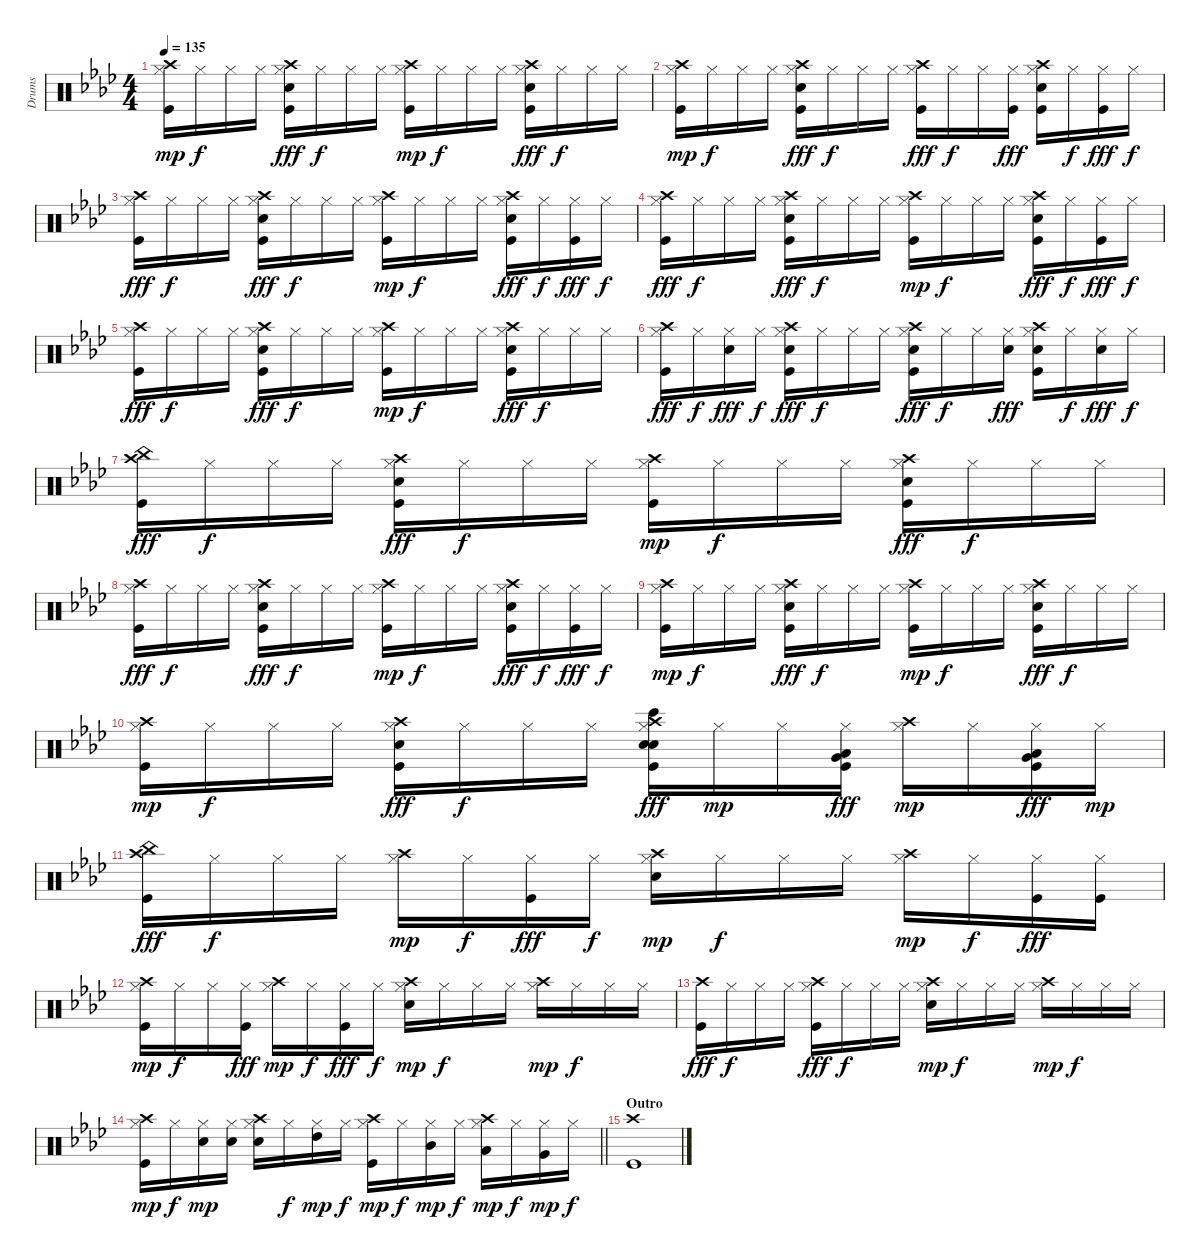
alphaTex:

\track ("Drums" "Drums") {instrument percussion}
\staff {score}
\articulation defaults
\ts (4 4)
\tempo 135
\clef neutral
\ks ab
("Crash high (hit)" "Kick (hit)" "Hi-Hat (closed)").16{dy mp} "Hi-Hat (closed)".16{dy f} "Hi-Hat (closed)".16 "Hi-Hat (closed)".16 ("Hi-Hat (closed)" "Crash high (hit)" "Snare (hit) 2" "Kick (hit)").16{dy fff} "Hi-Hat (closed)".16{dy f} "Hi-Hat (closed)".16 "Hi-Hat (closed)".16 ("Hi-Hat (closed)" "Kick (hit)" "Crash high (hit)").16{dy mp} "Hi-Hat (closed)".16{dy f} "Hi-Hat (closed)".16 "Hi-Hat (closed)".16 ("Hi-Hat (closed)" "Crash high (hit)" "Kick (hit)" "Snare (hit) 2").16{dy fff} "Hi-Hat (closed)".16{dy f} "Hi-Hat (closed)".16 "Hi-Hat (closed)".16 |
("Crash high (hit)" "Kick (hit)" "Hi-Hat (closed)").16{dy mp} "Hi-Hat (closed)".16{dy f} "Hi-Hat (closed)".16 "Hi-Hat (closed)".16 ("Hi-Hat (closed)" "Crash high (hit)" "Kick (hit)" "Snare (hit) 2").16{dy fff} "Hi-Hat (closed)".16{dy f} "Hi-Hat (closed)".16 "Hi-Hat (closed)".16 ("Hi-Hat (closed)" "Kick (hit)" "Crash high (hit)").16{dy fff} "Hi-Hat (closed)".16{dy f} "Hi-Hat (closed)".16 ("Hi-Hat (closed)" "Kick (hit)").16{dy fff} ("Kick (hit)" "Hi-Hat (closed)" "Crash high (hit)" "Snare (hit) 2").16 "Hi-Hat (closed)".16{dy f} ("Hi-Hat (closed)" "Kick (hit)").16{dy fff} "Hi-Hat (closed)".16{dy f} |
("Crash high (hit)" "Hi-Hat (closed)" "Kick (hit)").16{dy fff} "Hi-Hat (closed)".16{dy f} "Hi-Hat (closed)".16 "Hi-Hat (closed)".16 ("Snare (hit) 2" "Crash high (hit)" "Kick (hit)" "Hi-Hat (closed)").16{dy fff} "Hi-Hat (closed)".16{dy f} "Hi-Hat (closed)".16 "Hi-Hat (closed)".16 ("Hi-Hat (closed)" "Kick (hit)" "Crash high (hit)").16{dy mp} "Hi-Hat (closed)".16{dy f} "Hi-Hat (closed)".16 "Hi-Hat (closed)".16 ("Hi-Hat (closed)" "Crash high (hit)" "Kick (hit)" "Snare (hit) 2").16{dy fff} "Hi-Hat (closed)".16{dy f} ("Hi-Hat (closed)" "Kick (hit)").16{dy fff} "Hi-Hat (closed)".16{dy f} |
("Crash high (hit)" "Hi-Hat (closed)" "Kick (hit)").16{dy fff} "Hi-Hat (closed)".16{dy f} "Hi-Hat (closed)".16 "Hi-Hat (closed)".16 ("Snare (hit) 2" "Crash high (hit)" "Kick (hit)" "Hi-Hat (closed)").16{dy fff} "Hi-Hat (closed)".16{dy f} "Hi-Hat (closed)".16 "Hi-Hat (closed)".16 ("Hi-Hat (closed)" "Kick (hit)" "Crash high (hit)").16{dy mp} "Hi-Hat (closed)".16{dy f} "Hi-Hat (closed)".16 "Hi-Hat (closed)".16 ("Hi-Hat (closed)" "Crash high (hit)" "Kick (hit)" "Snare (hit) 2").16{dy fff} "Hi-Hat (closed)".16{dy f} ("Hi-Hat (closed)" "Kick (hit)").16{dy fff} "Hi-Hat (closed)".16{dy f} |
("Crash high (hit)" "Hi-Hat (closed)" "Kick (hit)").16{dy fff} "Hi-Hat (closed)".16{dy f} "Hi-Hat (closed)".16 "Hi-Hat (closed)".16 ("Snare (hit) 2" "Crash high (hit)" "Kick (hit)" "Hi-Hat (closed)").16{dy fff} "Hi-Hat (closed)".16{dy f} "Hi-Hat (closed)".16 "Hi-Hat (closed)".16 ("Hi-Hat (closed)" "Kick (hit)" "Crash high (hit)").16{dy mp} "Hi-Hat (closed)".16{dy f} "Hi-Hat (closed)".16 "Hi-Hat (closed)".16 ("Hi-Hat (closed)" "Crash high (hit)" "Kick (hit)" "Snare (hit) 2").16{dy fff} "Hi-Hat (closed)".16{dy f} "Hi-Hat (closed)".16 "Hi-Hat (closed)".16 |
("Crash high (hit)" "Hi-Hat (closed)" "Kick (hit)").16{dy fff} "Hi-Hat (closed)".16{dy f} ("Hi-Hat (closed)" "Snare (hit) 2").16{dy fff} "Hi-Hat (closed)".16{dy f} ("Snare (hit) 2" "Crash high (hit)" "Kick (hit)" "Hi-Hat (closed)").16{dy fff} "Hi-Hat (closed)".16{dy f} "Hi-Hat (closed)".16 "Hi-Hat (closed)".16 ("Hi-Hat (closed)" "Kick (hit)" "Crash high (hit)" "Snare (hit) 2").16{dy fff} "Hi-Hat (closed)".16{dy f} "Hi-Hat (closed)".16 ("Hi-Hat (closed)" "Snare (hit) 2").16{dy fff} ("Hi-Hat (closed)" "Crash high (hit)" "Kick (hit)" "Snare (hit) 2").16 "Hi-Hat (closed)".16{dy f} ("Hi-Hat (closed)" "Snare (hit) 2").16{dy fff} "Hi-Hat (closed)".16{dy f} |
("Crash high (hit)" "Kick (hit)" "China (hit)").16{dy fff} "Hi-Hat (closed)".16{dy f} "Hi-Hat (closed)".16 "Hi-Hat (closed)".16 ("Hi-Hat (closed)" "Crash high (hit)" "Snare (hit) 2" "Kick (hit)").16{dy fff} "Hi-Hat (closed)".16{dy f} "Hi-Hat (closed)".16 "Hi-Hat (closed)".16 ("Hi-Hat (closed)" "Kick (hit)" "Crash high (hit)").16{dy mp} "Hi-Hat (closed)".16{dy f} "Hi-Hat (closed)".16 "Hi-Hat (closed)".16 ("Hi-Hat (closed)" "Crash high (hit)" "Snare (hit) 2" "Kick (hit)").16{dy fff} "Hi-Hat (closed)".16{dy f} "Hi-Hat (closed)".16 "Hi-Hat (closed)".16 |
("Crash high (hit)" "Kick (hit)" "Hi-Hat (closed)").16{dy fff} "Hi-Hat (closed)".16{dy f} "Hi-Hat (closed)".16 "Hi-Hat (closed)".16 ("Hi-Hat (closed)" "Crash high (hit)" "Snare (hit) 2" "Kick (hit)").16{dy fff} "Hi-Hat (closed)".16{dy f} "Hi-Hat (closed)".16 "Hi-Hat (closed)".16 ("Hi-Hat (closed)" "Kick (hit)" "Crash high (hit)").16{dy mp} "Hi-Hat (closed)".16{dy f} "Hi-Hat (closed)".16 "Hi-Hat (closed)".16 ("Hi-Hat (closed)" "Crash high (hit)" "Snare (hit) 2" "Kick (hit)").16{dy fff} "Hi-Hat (closed)".16{dy f} ("Hi-Hat (closed)" "Kick (hit)").16{dy fff} "Hi-Hat (closed)".16{dy f} |
("Crash high (hit)" "Kick (hit)" "Hi-Hat (closed)").16{dy mp} "Hi-Hat (closed)".16{dy f} "Hi-Hat (closed)".16 "Hi-Hat (closed)".16 ("Hi-Hat (closed)" "Crash high (hit)" "Snare (hit) 2" "Kick (hit)").16{dy fff} "Hi-Hat (closed)".16{dy f} "Hi-Hat (closed)".16 "Hi-Hat (closed)".16 ("Hi-Hat (closed)" "Kick (hit)" "Crash high (hit)").16{dy mp} "Hi-Hat (closed)".16{dy f} "Hi-Hat (closed)".16 "Hi-Hat (closed)".16 ("Hi-Hat (closed)" "Crash high (hit)" "Kick (hit)" "Snare (hit) 2").16{dy fff} "Hi-Hat (closed)".16{dy f} "Hi-Hat (closed)".16 "Hi-Hat (closed)".16 |
("Crash high (hit)" "Kick (hit)" "Hi-Hat (closed)").16{dy mp} "Hi-Hat (closed)".16{dy f} "Hi-Hat (closed)".16 "Hi-Hat (closed)".16 ("Hi-Hat (closed)" "Crash high (hit)" "Kick (hit)" "Snare (hit) 2").16{dy fff} "Hi-Hat (closed)".16{dy f} "Hi-Hat (closed)".16 "Hi-Hat (closed)".16 ("Hi-Hat (closed)" "Crash high (hit)" "Kick (hit)" "Snare (hit) 2" "Hand Clap (hit)" "Bongo High (hit)").16{dy fff} "Hi-Hat (closed)".16{dy mp} "Hi-Hat (closed)".16 ("Hi-Hat (closed)" "Kick (hit)" "Low Floor Tom (hit)" "Very Low Tom (hit)").16{dy fff} ("Hi-Hat (closed)" "Crash high (hit)").16{dy mp} "Hi-Hat (closed)".16 ("Hi-Hat (closed)" "Kick (hit)" "Very Low Tom (hit)" "Low Floor Tom (hit)").16{dy fff} "Hi-Hat (closed)".16{dy mp} |
("Crash high (hit)" "Kick (hit)" "China (hit)").16{dy fff} "Hi-Hat (closed)".16{dy f} "Hi-Hat (closed)".16 "Hi-Hat (closed)".16 ("Hi-Hat (closed)" "Crash high (hit)").16{dy mp} "Hi-Hat (closed)".16{dy f} ("Hi-Hat (closed)" "Kick (hit)").16{dy fff} "Hi-Hat (closed)".16{dy f} ("Hi-Hat (closed)" "Snare (hit) 2" "Crash high (hit)").16{dy mp} "Hi-Hat (closed)".16{dy f} "Hi-Hat (closed)".16 "Hi-Hat (closed)".16 ("Hi-Hat (closed)" "Crash high (hit)").16{dy mp} "Hi-Hat (closed)".16{dy f} ("Hi-Hat (closed)" "Kick (hit)").16{dy fff} ("Hi-Hat (closed)" "Kick (hit)").16 |
("Crash high (hit)" "Kick (hit)" "Hi-Hat (closed)").16{dy mp} "Hi-Hat (closed)".16{dy f} "Hi-Hat (closed)".16 ("Hi-Hat (closed)" "Kick (hit)").16{dy fff} ("Hi-Hat (closed)" "Crash high (hit)").16{dy mp} "Hi-Hat (closed)".16{dy f} ("Hi-Hat (closed)" "Kick (hit)").16{dy fff} "Hi-Hat (closed)".16{dy f} ("Hi-Hat (closed)" "Snare (hit) 2" "Crash high (hit)").16{dy mp} "Hi-Hat (closed)".16{dy f} "Hi-Hat (closed)".16 "Hi-Hat (closed)".16 ("Hi-Hat (closed)" "Crash high (hit)").16{dy mp} "Hi-Hat (closed)".16{dy f} "Hi-Hat (closed)".16 "Hi-Hat (closed)".16 |
("Crash high (hit)" "Kick (hit)").16{dy fff} "Hi-Hat (closed)".16{dy f} "Hi-Hat (closed)".16 "Hi-Hat (closed)".16 ("Hi-Hat (closed)" "Crash high (hit)" "Kick (hit)").16{dy fff} "Hi-Hat (closed)".16{dy f} "Hi-Hat (closed)".16 "Hi-Hat (closed)".16 ("Hi-Hat (closed)" "Snare (hit) 2" "Crash high (hit)").16{dy mp} "Hi-Hat (closed)".16{dy f} "Hi-Hat (closed)".16 "Hi-Hat (closed)".16 ("Hi-Hat (closed)" "Crash high (hit)").16{dy mp} "Hi-Hat (closed)".16{dy f} "Hi-Hat (closed)".16 "Hi-Hat (closed)".16 |
\barLineRight lightlight
("Crash high (hit)" "Kick (hit)" "Hi-Hat (closed)").16{dy mp} "Hi-Hat (closed)".16{dy f} ("Snare (hit) 2" "Hi-Hat (closed)").16{dy mp} ("Snare (hit) 2" "Hi-Hat (closed)").16 ("Snare (hit) 2" "Crash high (hit)" "Hi-Hat (closed)").16 "Hi-Hat (closed)".16{dy f} ("High Tom (hit)" "Hi-Hat (closed)").16{dy mp} "Hi-Hat (closed)".16{dy f} ("Kick (hit)" "Crash high (hit)" "Hi-Hat (closed)").16{dy mp} "Hi-Hat (closed)".16{dy f} ("Mid Tom (hit)" "Hi-Hat (closed)").16{dy mp} "Hi-Hat (closed)".16{dy f} ("Low Tom (hit)" "Crash high (hit)" "Hi-Hat (closed)").16{dy mp} "Hi-Hat (closed)".16{dy f} ("Very Low Tom (hit)" "Hi-Hat (closed)").16{dy mp} "Hi-Hat (closed)".16{dy f} |
\section ("" "Outro")
("Kick (hit)" "Crash high (hit)").1
